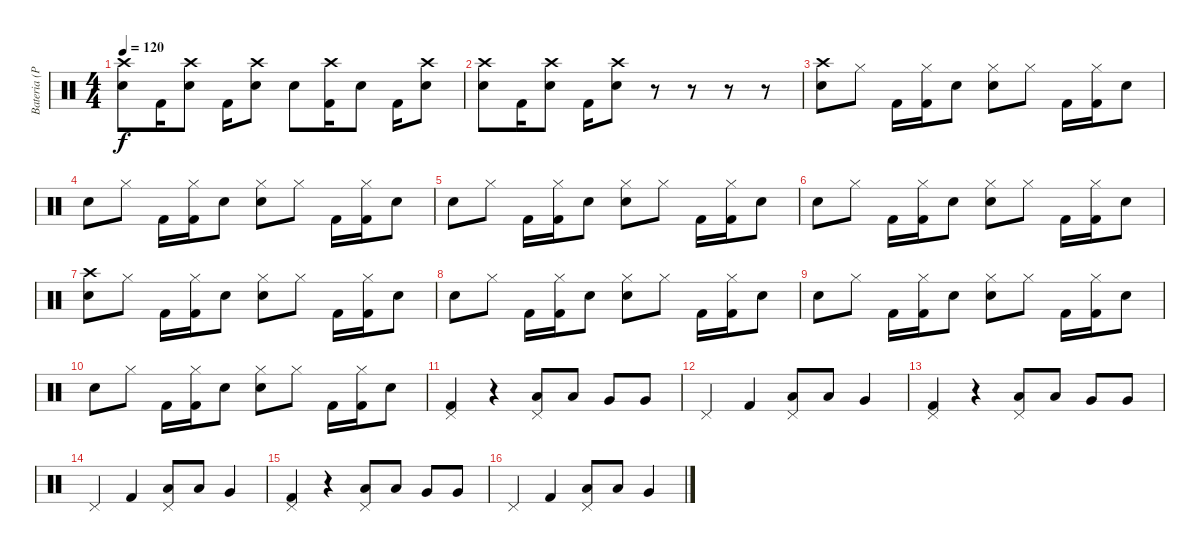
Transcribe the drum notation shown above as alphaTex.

\track ("Bateria (Pelado)" "Bateria (P") {instrument percussion}
\staff {score}
\articulation defaults
\ts (4 4)
\tempo 120
\clef neutral
\ks c
("Crash high (hit)" "Electric Snare (hit)").8{dy f} "Kick (hit) 2".16 ("Crash high (hit)" "Electric Snare (hit)").8 "Kick (hit) 2".16 ("Crash high (hit)" "Electric Snare (hit)").8 "Electric Snare (hit)".8 ("Crash high (hit)" "Kick (hit) 2").16 "Electric Snare (hit)".8 "Kick (hit) 2".16 ("Crash high (hit)" "Electric Snare (hit)").8 |
("Crash high (hit)" "Electric Snare (hit)").8 "Kick (hit) 2".16 ("Crash high (hit)" "Electric Snare (hit)").8 "Kick (hit) 2".16 ("Crash high (hit)" "Electric Snare (hit)").8 r.8 r.8 r.8 r.8 |
("Crash high (hit)" "Electric Snare (hit)").8 "Hi-Hat (closed)".8 "Kick (hit) 2".16 ("Hi-Hat (closed)" "Kick (hit) 2").16 "Electric Snare (hit)".8 ("Hi-Hat (closed)" "Electric Snare (hit)").8 "Hi-Hat (closed)".8 "Kick (hit) 2".16 ("Hi-Hat (closed)" "Kick (hit) 2").16 "Electric Snare (hit)".8 |
"Electric Snare (hit)".8 "Hi-Hat (closed)".8 "Kick (hit) 2".16 ("Hi-Hat (closed)" "Kick (hit) 2").16 "Electric Snare (hit)".8 ("Hi-Hat (closed)" "Electric Snare (hit)").8 "Hi-Hat (closed)".8 "Kick (hit) 2".16 ("Hi-Hat (closed)" "Kick (hit) 2").16 "Electric Snare (hit)".8 |
"Electric Snare (hit)".8 "Hi-Hat (closed)".8 "Kick (hit) 2".16 ("Hi-Hat (closed)" "Kick (hit) 2").16 "Electric Snare (hit)".8 ("Hi-Hat (closed)" "Electric Snare (hit)").8 "Hi-Hat (closed)".8 "Kick (hit) 2".16 ("Hi-Hat (closed)" "Kick (hit) 2").16 "Electric Snare (hit)".8 |
"Electric Snare (hit)".8 "Hi-Hat (closed)".8 "Kick (hit) 2".16 ("Hi-Hat (closed)" "Kick (hit) 2").16 "Electric Snare (hit)".8 ("Hi-Hat (closed)" "Electric Snare (hit)").8 "Hi-Hat (closed)".8 "Kick (hit) 2".16 ("Hi-Hat (closed)" "Kick (hit) 2").16 "Electric Snare (hit)".8 |
("Crash high (hit)" "Electric Snare (hit)").8 "Hi-Hat (closed)".8 "Kick (hit) 2".16 ("Hi-Hat (closed)" "Kick (hit) 2").16 "Electric Snare (hit)".8 ("Hi-Hat (closed)" "Electric Snare (hit)").8 "Hi-Hat (closed)".8 "Kick (hit) 2".16 ("Hi-Hat (closed)" "Kick (hit) 2").16 "Electric Snare (hit)".8 |
"Electric Snare (hit)".8 "Hi-Hat (closed)".8 "Kick (hit) 2".16 ("Hi-Hat (closed)" "Kick (hit) 2").16 "Electric Snare (hit)".8 ("Hi-Hat (closed)" "Electric Snare (hit)").8 "Hi-Hat (closed)".8 "Kick (hit) 2".16 ("Hi-Hat (closed)" "Kick (hit) 2").16 "Electric Snare (hit)".8 |
"Electric Snare (hit)".8 "Hi-Hat (closed)".8 "Kick (hit) 2".16 ("Hi-Hat (closed)" "Kick (hit) 2").16 "Electric Snare (hit)".8 ("Hi-Hat (closed)" "Electric Snare (hit)").8 "Hi-Hat (closed)".8 "Kick (hit) 2".16 ("Hi-Hat (closed)" "Kick (hit) 2").16 "Electric Snare (hit)".8 |
"Electric Snare (hit)".8 "Hi-Hat (closed)".8 "Kick (hit) 2".16 ("Hi-Hat (closed)" "Kick (hit) 2").16 "Electric Snare (hit)".8 ("Hi-Hat (closed)" "Electric Snare (hit)").8 "Hi-Hat (closed)".8 "Kick (hit) 2".16 ("Hi-Hat (closed)" "Kick (hit) 2").16 "Electric Snare (hit)".8 |
("Pedal Hi-Hat (hit)" "Kick (hit) 2").4 r.4 ("Pedal Hi-Hat (hit)" "Low Tom (hit)").8 "Low Tom (hit)".8 "Very Low Tom (hit)".8 "Very Low Tom (hit)".8 |
"Pedal Hi-Hat (hit)".4 "Kick (hit) 2".4 ("Pedal Hi-Hat (hit)" "Low Tom (hit)").8 "Low Tom (hit)".8 "Very Low Tom (hit)".4 |
("Pedal Hi-Hat (hit)" "Kick (hit) 2").4 r.4 ("Pedal Hi-Hat (hit)" "Low Tom (hit)").8 "Low Tom (hit)".8 "Very Low Tom (hit)".8 "Very Low Tom (hit)".8 |
"Pedal Hi-Hat (hit)".4 "Kick (hit) 2".4 ("Pedal Hi-Hat (hit)" "Low Tom (hit)").8 "Low Tom (hit)".8 "Very Low Tom (hit)".4 |
("Pedal Hi-Hat (hit)" "Kick (hit) 2").4 r.4 ("Pedal Hi-Hat (hit)" "Low Tom (hit)").8 "Low Tom (hit)".8 "Very Low Tom (hit)".8 "Very Low Tom (hit)".8 |
"Pedal Hi-Hat (hit)".4 "Kick (hit) 2".4 ("Pedal Hi-Hat (hit)" "Low Tom (hit)").8 "Low Tom (hit)".8 "Very Low Tom (hit)".4
